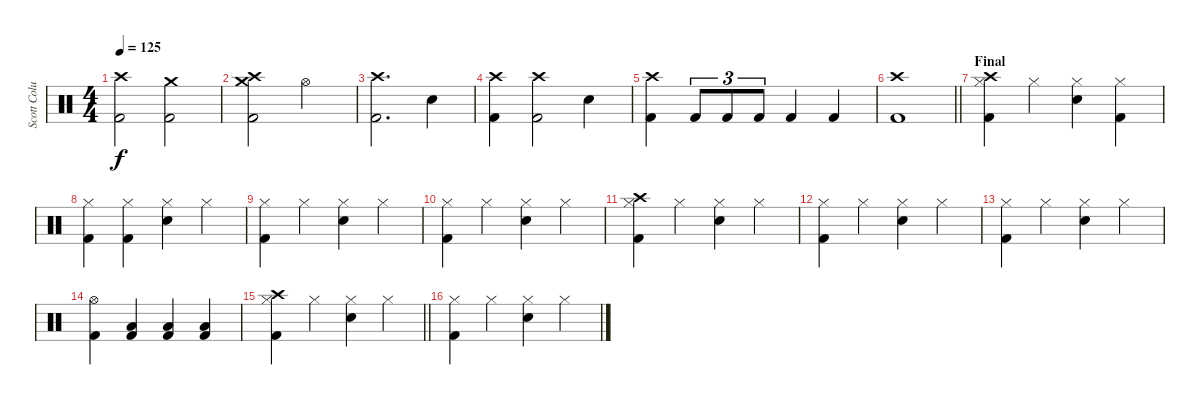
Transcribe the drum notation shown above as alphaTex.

\track ("Scott Columbus" "Scott Colu") {instrument percussion}
\staff {score}
\articulation defaults
\ts (4 4)
\tempo 125
\clef neutral
\ks c
("Crash high (hit)" "Kick (hit) 2").2{dy f} ("Crash medium (hit)" "Kick (hit) 2").2 |
("Crash high (hit)" "Crash medium (hit)" "Kick (hit) 2").2 "Hi-Hat (open)".2 |
("Crash high (hit)" "Kick (hit) 2").2{d} "Snare (hit) 2".4 |
("Crash high (hit)" "Kick (hit) 2").4 ("Crash high (hit)" "Kick (hit) 2").2 "Snare (hit) 2".4 |
("Crash high (hit)" "Kick (hit) 2").4 "Kick (hit) 2".8{tu (3 2)} "Kick (hit) 2".8{tu (3 2)} "Kick (hit) 2".8{tu (3 2)} "Kick (hit) 2".4 "Kick (hit) 2".4 |
\barLineRight lightlight
("Crash high (hit)" "Kick (hit) 2").1 |
\section ("" "Final")
("Crash high (hit)" "Hi-Hat (closed)" "Kick (hit) 2").4 "Hi-Hat (closed)".4 ("Hi-Hat (closed)" "Snare (hit) 2").4 ("Hi-Hat (closed)" "Kick (hit) 2").4 |
("Hi-Hat (closed)" "Kick (hit) 2").4 ("Hi-Hat (closed)" "Kick (hit) 2").4 ("Hi-Hat (closed)" "Snare (hit) 2").4 "Hi-Hat (closed)".4 |
("Hi-Hat (closed)" "Kick (hit) 2").4 "Hi-Hat (closed)".4 ("Hi-Hat (closed)" "Snare (hit) 2").4 "Hi-Hat (closed)".4 |
("Hi-Hat (closed)" "Kick (hit) 2").4 "Hi-Hat (closed)".4 ("Hi-Hat (closed)" "Snare (hit) 2").4 "Hi-Hat (closed)".4 |
("Crash high (hit)" "Hi-Hat (closed)" "Kick (hit) 2").4 "Hi-Hat (closed)".4 ("Hi-Hat (closed)" "Snare (hit) 2").4 "Hi-Hat (closed)".4 |
("Hi-Hat (closed)" "Kick (hit) 2").4 "Hi-Hat (closed)".4 ("Hi-Hat (closed)" "Snare (hit) 2").4 "Hi-Hat (closed)".4 |
("Hi-Hat (closed)" "Kick (hit) 2").4 "Hi-Hat (closed)".4 ("Hi-Hat (closed)" "Snare (hit) 2").4 "Hi-Hat (closed)".4 |
("Hi-Hat (open)" "Kick (hit) 2").4 ("Low Tom (hit)" "Kick (hit) 2").4 ("Low Tom (hit)" "Kick (hit) 2").4 ("Low Tom (hit)" "Kick (hit) 2").4 |
\barLineRight lightlight
("Crash high (hit)" "Hi-Hat (closed)" "Kick (hit) 2").4 "Hi-Hat (closed)".4 ("Hi-Hat (closed)" "Snare (hit) 2").4 "Hi-Hat (closed)".4 |
\section ("" "")
("Hi-Hat (closed)" "Kick (hit) 2").4 "Hi-Hat (closed)".4 ("Hi-Hat (closed)" "Snare (hit) 2").4 "Hi-Hat (closed)".4
